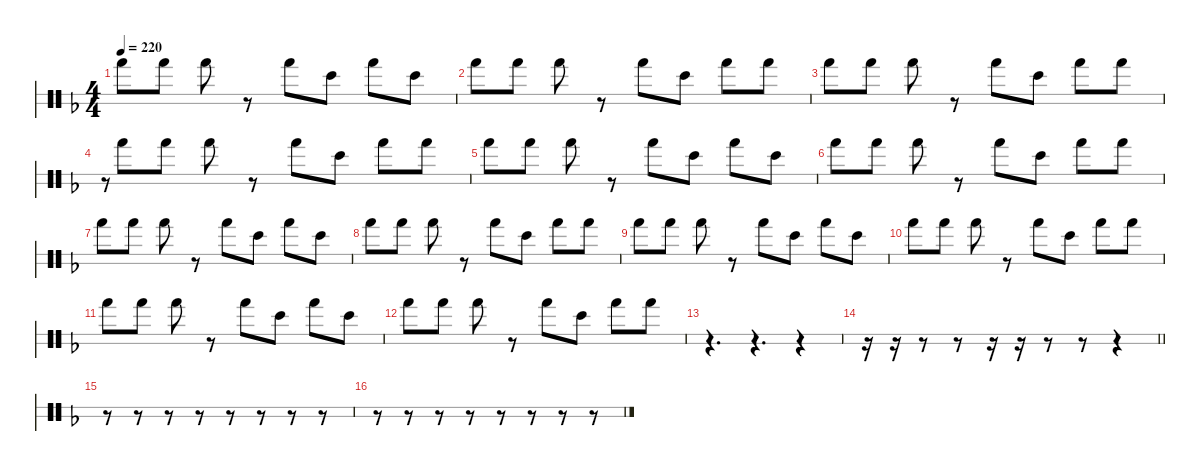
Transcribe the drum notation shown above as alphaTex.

\hideDynamics
\bracketExtendMode nobrackets
\singleTrackTrackNamePolicy hidden
\multiTrackTrackNamePolicy hidden
\firstSystemTrackNameMode fullname
\firstSystemTrackNameOrientation horizontal
\otherSystemsTrackNameOrientation horizontal
\track ("Bongos" "bngKit") {instrument percussion}
\staff {score 2}
\articulation defaults
\ts (4 4)
\tempo 220
\clef neutral
\ks dminor "Hand (hit)"{acc forcenatural}.8{dy p} "Hand (hit)"{acc forcenatural}.8 "Hand (hit)"{acc forcenatural}.8{dy mp}
r.8 "Hand (hit)"{acc forcenatural}.8 "Bongo High (hit)"{acc forcenatural}.8 "Hand (hit)"{acc forcenatural}.8 "Bongo High (hit)"{acc forcenatural}.8{dy p} |
"Hand (hit)"{acc forcenatural}.8{dy mp} "Hand (hit)"{acc forcenatural}.8{dy p} "Hand (hit)"{acc forcenatural}.8{dy mp} r.8 "Hand (hit)"{acc forcenatural}.8 "Bongo High (hit)"{acc forcenatural}.8 "Hand (hit)"{acc forcenatural}.8{dy p} "Hand (hit)"{acc forcenatural}.8 |
"Hand (hit)"{acc forcenatural}.8 "Hand (hit)"{acc forcenatural}.8 "Hand (hit)"{acc forcenatural}.8{dy mp} r.8 "Hand (hit)"{acc forcenatural}.8 "Bongo High (hit)"{acc forcenatural}.8 "Hand (hit)"{acc forcenatural}.8 "Hand (hit)"{acc forcenatural}.8{dy p} |
r.8{gr} "Hand (hit)"{acc forcenatural}.8 "Hand (hit)"{acc forcenatural}.8 "Hand (hit)"{acc forcenatural}.8{dy mp} r.8 "Hand (hit)"{acc forcenatural}.8 "Bongo High (hit)"{acc forcenatural}.8 "Hand (hit)"{acc forcenatural}.8 "Hand (hit)"{acc forcenatural}.8{dy p} |
"Hand (hit)"{acc forcenatural}.8 "Hand (hit)"{acc forcenatural}.8 "Hand (hit)"{acc forcenatural}.8{dy mp} r.8 "Hand (hit)"{acc forcenatural}.8 "Bongo High (hit)"{acc forcenatural}.8 "Hand (hit)"{acc forcenatural}.8 "Bongo High (hit)"{acc forcenatural}.8{dy p} |
"Hand (hit)"{acc forcenatural}.8{dy mp} "Hand (hit)"{acc forcenatural}.8{dy p} "Hand (hit)"{acc forcenatural}.8{dy mp} r.8 "Hand (hit)"{acc forcenatural}.8 "Bongo High (hit)"{acc forcenatural}.8 "Hand (hit)"{acc forcenatural}.8{dy p} "Hand (hit)"{acc forcenatural}.8 |
"Hand (hit)"{acc forcenatural}.8 "Hand (hit)"{acc forcenatural}.8 "Hand (hit)"{acc forcenatural}.8{dy mp} r.8 "Hand (hit)"{acc forcenatural}.8 "Bongo High (hit)"{acc forcenatural}.8 "Hand (hit)"{acc forcenatural}.8 "Bongo High (hit)"{acc forcenatural}.8{dy p} |
"Hand (hit)"{acc forcenatural}.8{dy mp} "Hand (hit)"{acc forcenatural}.8{dy p} "Hand (hit)"{acc forcenatural}.8{dy mp} r.8 "Hand (hit)"{acc forcenatural}.8 "Bongo High (hit)"{acc forcenatural}.8 "Hand (hit)"{acc forcenatural}.8{dy p} "Hand (hit)"{acc forcenatural}.8 |
"Hand (hit)"{acc forcenatural}.8 "Hand (hit)"{acc forcenatural}.8 "Hand (hit)"{acc forcenatural}.8{dy mp} r.8 "Hand (hit)"{acc forcenatural}.8 "Bongo High (hit)"{acc forcenatural}.8 "Hand (hit)"{acc forcenatural}.8 "Bongo High (hit)"{acc forcenatural}.8{dy p} |
"Hand (hit)"{acc forcenatural}.8{dy mp} "Hand (hit)"{acc forcenatural}.8{dy p} "Hand (hit)"{acc forcenatural}.8{dy mp} r.8 "Hand (hit)"{acc forcenatural}.8 "Bongo High (hit)"{acc forcenatural}.8 "Hand (hit)"{acc forcenatural}.8{dy p} "Hand (hit)"{acc forcenatural}.8 |
"Hand (hit)"{acc forcenatural}.8 "Hand (hit)"{acc forcenatural}.8 "Hand (hit)"{acc forcenatural}.8{dy mp} r.8 "Hand (hit)"{acc forcenatural}.8 "Bongo High (hit)"{acc forcenatural}.8 "Hand (hit)"{acc forcenatural}.8 "Bongo High (hit)"{acc forcenatural}.8{dy p} |
"Hand (hit)"{acc forcenatural}.8{dy mp} "Hand (hit)"{acc forcenatural}.8{dy p} "Hand (hit)"{acc forcenatural}.8{dy mp} r.8 "Hand (hit)"{acc forcenatural}.8 "Bongo High (hit)"{acc forcenatural}.8 "Hand (hit)"{acc forcenatural}.8{dy p} "Hand (hit)"{acc forcenatural}.8 |
r.4{d} r.4{d} r.4 |
\barLineRight lightlight
r.16 r.16 r.8 r.8 r.16 r.16 r.8 r.8 r.4 |
r.8 r.8 r.8 r.8 r.8 r.8 r.8 r.8 |
r.8 r.8 r.8 r.8 r.8 r.8 r.8 r.8
